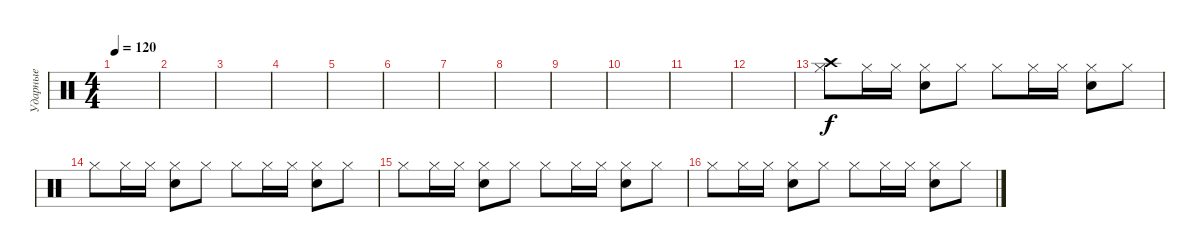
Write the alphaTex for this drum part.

\track ("Ударные" "Ударные") {instrument percussion}
\staff {score}
\articulation defaults
\ts (4 4)
\tempo 120
\clef neutral
\ks c
|
|
|
|
|
|
|
|
|
|
|
|
("Hi-Hat (closed)" "Crash high (hit)").8 "Hi-Hat (closed)".16 "Hi-Hat (closed)".16 ("Hi-Hat (closed)" "Electric Snare (hit)").8 "Hi-Hat (closed)".8 "Hi-Hat (closed)".8 "Hi-Hat (closed)".16 "Hi-Hat (closed)".16 ("Hi-Hat (closed)" "Electric Snare (hit)").8 "Hi-Hat (closed)".8 |
"Hi-Hat (closed)".8 "Hi-Hat (closed)".16 "Hi-Hat (closed)".16 ("Hi-Hat (closed)" "Electric Snare (hit)").8 "Hi-Hat (closed)".8 "Hi-Hat (closed)".8 "Hi-Hat (closed)".16 "Hi-Hat (closed)".16 ("Hi-Hat (closed)" "Electric Snare (hit)").8 "Hi-Hat (closed)".8 |
"Hi-Hat (closed)".8 "Hi-Hat (closed)".16 "Hi-Hat (closed)".16 ("Hi-Hat (closed)" "Electric Snare (hit)").8 "Hi-Hat (closed)".8 "Hi-Hat (closed)".8 "Hi-Hat (closed)".16 "Hi-Hat (closed)".16 ("Hi-Hat (closed)" "Electric Snare (hit)").8 "Hi-Hat (closed)".8 |
"Hi-Hat (closed)".8 "Hi-Hat (closed)".16 "Hi-Hat (closed)".16 ("Hi-Hat (closed)" "Electric Snare (hit)").8 "Hi-Hat (closed)".8 "Hi-Hat (closed)".8 "Hi-Hat (closed)".16 "Hi-Hat (closed)".16 ("Hi-Hat (closed)" "Electric Snare (hit)").8 "Hi-Hat (closed)".8
